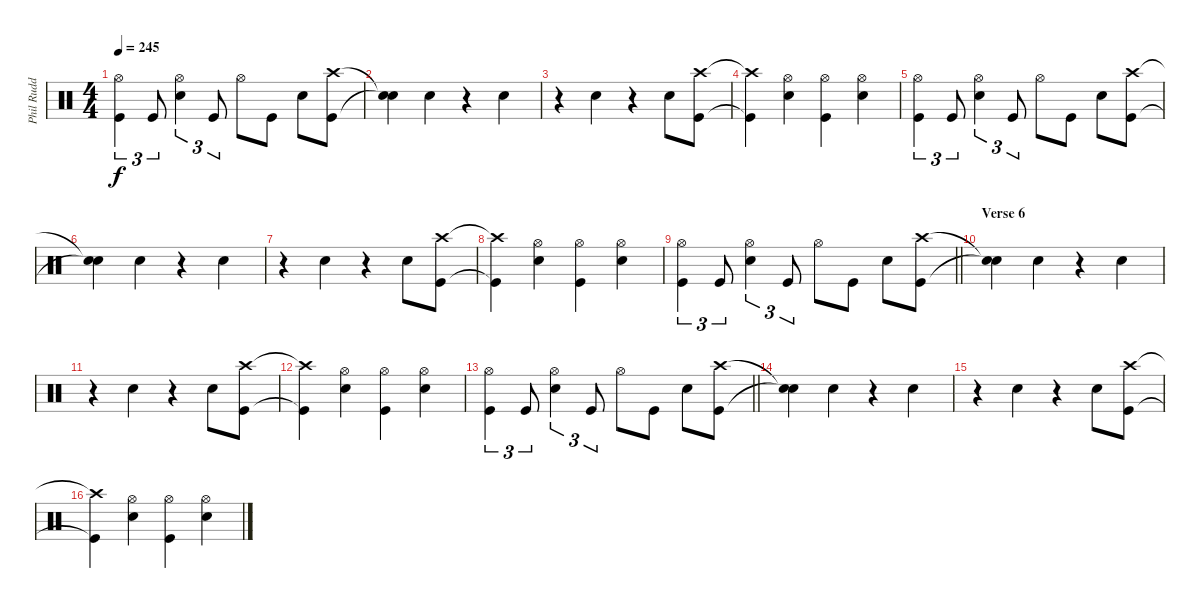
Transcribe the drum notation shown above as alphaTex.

\track ("Phil Rudd" "Phil Rudd") {instrument percussion}
\staff {score}
\articulation defaults
\ts (4 4)
\tempo 245
\clef neutral
\ks c
("Hi-Hat (open)" "Kick (hit)").4{tu (3 2) dy f} "Kick (hit)".8{tu (3 2)} ("Hi-Hat (open)" "Snare (hit) 2").4{tu (3 2)} "Kick (hit)".8{tu (3 2)} "Hi-Hat (open)".8 "Kick (hit)".8 "Snare (hit) 2".8 ("Crash high (hit)" "Kick (hit)").8 |
("Snare (hit)"{t} "Snare (hit)"{t}).4 "Snare (hit) 2".4 r.4 "Snare (hit) 2".4 |
r.4 "Snare (hit) 2".4 r.4 "Snare (hit) 2".8 ("Crash high (hit)" "Kick (hit)").8 |
("Crash high (hit)"{t} "Kick (hit)"{t}).4 ("Hi-Hat (open)" "Snare (hit) 2").4 ("Hi-Hat (open)" "Kick (hit)").4 ("Hi-Hat (open)" "Snare (hit) 2").4 |
("Hi-Hat (open)" "Kick (hit)").4{tu (3 2)} "Kick (hit)".8{tu (3 2)} ("Hi-Hat (open)" "Snare (hit) 2").4{tu (3 2)} "Kick (hit)".8{tu (3 2)} "Hi-Hat (open)".8 "Kick (hit)".8 "Snare (hit) 2".8 ("Crash high (hit)" "Kick (hit)").8 |
("Snare (hit)"{t} "Snare (hit)"{t}).4 "Snare (hit) 2".4 r.4 "Snare (hit) 2".4 |
r.4 "Snare (hit) 2".4 r.4 "Snare (hit) 2".8 ("Crash high (hit)" "Kick (hit)").8 |
("Crash high (hit)"{t} "Kick (hit)"{t}).4 ("Hi-Hat (open)" "Snare (hit) 2").4 ("Hi-Hat (open)" "Kick (hit)").4 ("Hi-Hat (open)" "Snare (hit) 2").4 |
\barLineRight lightlight
("Hi-Hat (open)" "Kick (hit)").4{tu (3 2)} "Kick (hit)".8{tu (3 2)} ("Hi-Hat (open)" "Snare (hit) 2").4{tu (3 2)} "Kick (hit)".8{tu (3 2)} "Hi-Hat (open)".8 "Kick (hit)".8 "Snare (hit) 2".8 ("Crash high (hit)" "Kick (hit)").8 |
\section ("" "Verse 6")
("Snare (hit)"{t} "Snare (hit)"{t}).4 "Snare (hit) 2".4 r.4 "Snare (hit) 2".4 |
r.4 "Snare (hit) 2".4 r.4 "Snare (hit) 2".8 ("Crash high (hit)" "Kick (hit)").8 |
("Crash high (hit)"{t} "Kick (hit)"{t}).4 ("Hi-Hat (open)" "Snare (hit) 2").4 ("Hi-Hat (open)" "Kick (hit)").4 ("Hi-Hat (open)" "Snare (hit) 2").4 |
\barLineRight lightlight
("Hi-Hat (open)" "Kick (hit)").4{tu (3 2)} "Kick (hit)".8{tu (3 2)} ("Hi-Hat (open)" "Snare (hit) 2").4{tu (3 2)} "Kick (hit)".8{tu (3 2)} "Hi-Hat (open)".8 "Kick (hit)".8 "Snare (hit) 2".8 ("Crash high (hit)" "Kick (hit)").8 |
("Snare (hit)"{t} "Snare (hit)"{t}).4 "Snare (hit) 2".4 r.4 "Snare (hit) 2".4 |
r.4 "Snare (hit) 2".4 r.4 "Snare (hit) 2".8 ("Crash high (hit)" "Kick (hit)").8 |
("Crash high (hit)"{t} "Kick (hit)"{t}).4 ("Hi-Hat (open)" "Snare (hit) 2").4 ("Hi-Hat (open)" "Kick (hit)").4 ("Hi-Hat (open)" "Snare (hit) 2").4
